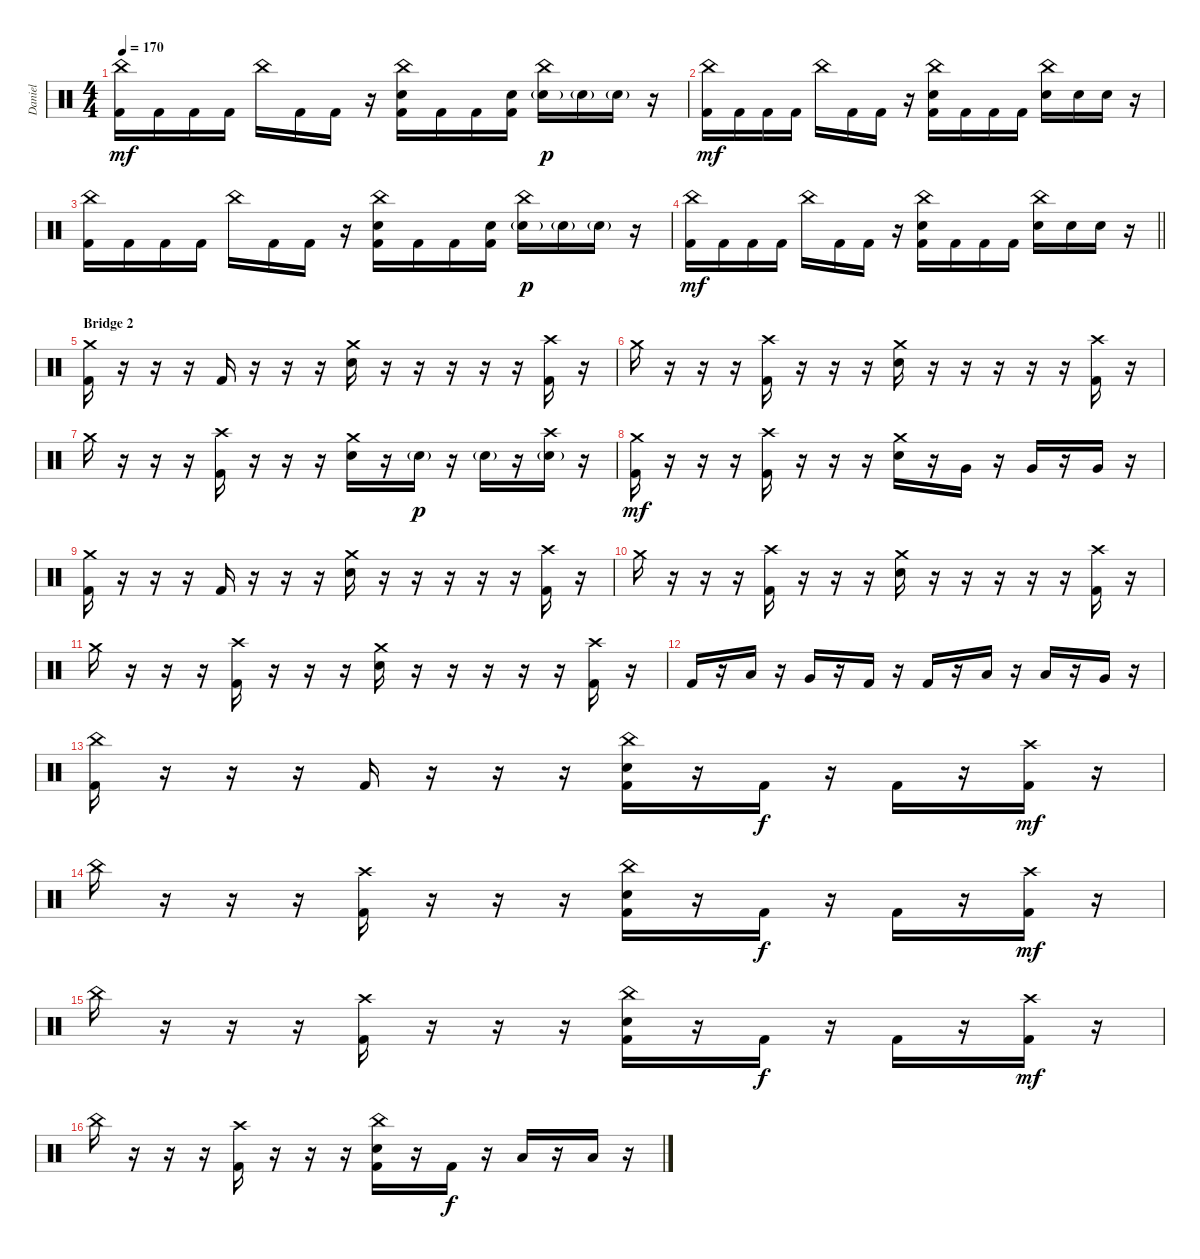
\track ("Daniel" "Daniel") {instrument percussion}
\staff {score}
\articulation defaults
\ts (4 4)
\tempo 170
\clef neutral
\ks c
("China (hit)" "Kick (hit) 2").16{dy mf} "Kick (hit) 2".16 "Kick (hit) 2".16 "Kick (hit) 2".16 "China (hit)".16 "Kick (hit) 2".16 "Kick (hit) 2".16 r.16 ("China (hit)" "Snare (hit) 2" "Kick (hit) 2").16 "Kick (hit) 2".16 "Kick (hit) 2".16 ("Snare (hit) 2" "Kick (hit) 2").16 ("China (hit)" "Snare (hit) 2"{g}).16{dy p} "Snare (hit) 2"{g}.16 "Snare (hit) 2"{g}.16 r.16 |
("China (hit)" "Kick (hit) 2").16{dy mf} "Kick (hit) 2".16 "Kick (hit) 2".16 "Kick (hit) 2".16 "China (hit)".16 "Kick (hit) 2".16 "Kick (hit) 2".16 r.16 ("China (hit)" "Snare (hit) 2" "Kick (hit) 2").16 "Kick (hit) 2".16 "Kick (hit) 2".16 "Kick (hit) 2".16 ("China (hit)" "Snare (hit) 2").16 "Snare (hit) 2".16 "Snare (hit) 2".16 r.16 |
("China (hit)" "Kick (hit) 2").16 "Kick (hit) 2".16 "Kick (hit) 2".16 "Kick (hit) 2".16 "China (hit)".16 "Kick (hit) 2".16 "Kick (hit) 2".16 r.16 ("China (hit)" "Snare (hit) 2" "Kick (hit) 2").16 "Kick (hit) 2".16 "Kick (hit) 2".16 ("Snare (hit) 2" "Kick (hit) 2").16 ("China (hit)" "Snare (hit) 2"{g}).16{dy p} "Snare (hit) 2"{g}.16 "Snare (hit) 2"{g}.16 r.16 |
\barLineRight lightlight
("China (hit)" "Kick (hit) 2").16{dy mf} "Kick (hit) 2".16 "Kick (hit) 2".16 "Kick (hit) 2".16 "China (hit)".16 "Kick (hit) 2".16 "Kick (hit) 2".16 r.16 ("China (hit)" "Snare (hit) 2" "Kick (hit) 2").16 "Kick (hit) 2".16 "Kick (hit) 2".16 "Kick (hit) 2".16 ("China (hit)" "Snare (hit) 2").16 "Snare (hit) 2".16 "Snare (hit) 2".16 r.16 |
\section ("" "Bridge 2")
("Crash medium (hit)" "Kick (hit) 2").16 r.16 r.16 r.16 "Kick (hit) 2".16 r.16 r.16 r.16 ("Crash medium (hit)" "Snare (hit) 2").16 r.16 r.16 r.16 r.16 r.16 ("Crash high (hit)" "Kick (hit) 2").16 r.16 |
"Crash medium (hit)".16 r.16 r.16 r.16 ("Crash high (hit)" "Kick (hit) 2").16 r.16 r.16 r.16 ("Crash medium (hit)" "Snare (hit) 2").16 r.16 r.16 r.16 r.16 r.16 ("Crash high (hit)" "Kick (hit) 2").16 r.16 |
"Crash medium (hit)".16 r.16 r.16 r.16 ("Crash high (hit)" "Kick (hit) 2").16 r.16 r.16 r.16 ("Crash medium (hit)" "Snare (hit) 2").16 r.16 "Snare (hit) 2"{g}.16{dy p} r.16 "Snare (hit) 2"{g}.16 r.16 ("Crash high (hit)" "Snare (hit) 2"{g}).16 r.16 |
("Crash medium (hit)" "Kick (hit) 2").16{dy mf} r.16 r.16 r.16 ("Crash high (hit)" "Kick (hit) 2").16 r.16 r.16 r.16 ("Crash medium (hit)" "Snare (hit) 2").16 r.16 "Very Low Tom (hit)".16 r.16 "Very Low Tom (hit)".16 r.16 "Very Low Tom (hit)".16 r.16 |
("Crash medium (hit)" "Kick (hit) 2").16 r.16 r.16 r.16 "Kick (hit) 2".16 r.16 r.16 r.16 ("Crash medium (hit)" "Snare (hit) 2").16 r.16 r.16 r.16 r.16 r.16 ("Crash high (hit)" "Kick (hit) 2").16 r.16 |
"Crash medium (hit)".16 r.16 r.16 r.16 ("Crash high (hit)" "Kick (hit) 2").16 r.16 r.16 r.16 ("Crash medium (hit)" "Snare (hit) 2").16 r.16 r.16 r.16 r.16 r.16 ("Crash high (hit)" "Kick (hit) 2").16 r.16 |
"Crash medium (hit)".16 r.16 r.16 r.16 ("Crash high (hit)" "Kick (hit) 2").16 r.16 r.16 r.16 ("Crash medium (hit)" "Snare (hit) 2").16 r.16 r.16 r.16 r.16 r.16 ("Crash high (hit)" "Kick (hit) 2").16 r.16 |
"Kick (hit) 2".16 r.16 "Low Tom (hit)".16 r.16 "Very Low Tom (hit)".16 r.16 "Kick (hit) 2".16 r.16 "Kick (hit) 2".16 r.16 "Low Tom (hit)".16 r.16 "Low Tom (hit)".16 r.16 "Very Low Tom (hit)".16 r.16 |
("China (hit)" "Kick (hit) 2").16 r.16 r.16 r.16 "Kick (hit) 2".16 r.16 r.16 r.16 ("China (hit)" "Snare (hit) 2" "Kick (hit) 2").16 r.16 "Kick (hit) 2".16{dy f} r.16 "Kick (hit) 2".16 r.16 ("Crash high (hit)" "Kick (hit) 2").16{dy mf} r.16 |
"China (hit)".16 r.16 r.16 r.16 ("Crash high (hit)" "Kick (hit) 2").16 r.16 r.16 r.16 ("China (hit)" "Snare (hit) 2" "Kick (hit) 2").16 r.16 "Kick (hit) 2".16{dy f} r.16 "Kick (hit) 2".16 r.16 ("Crash high (hit)" "Kick (hit) 2").16{dy mf} r.16 |
"China (hit)".16 r.16 r.16 r.16 ("Crash high (hit)" "Kick (hit) 2").16 r.16 r.16 r.16 ("China (hit)" "Snare (hit) 2" "Kick (hit) 2").16 r.16 "Kick (hit) 2".16{dy f} r.16 "Kick (hit) 2".16 r.16 ("Crash high (hit)" "Kick (hit) 2").16{dy mf} r.16 |
"China (hit)".16 r.16 r.16 r.16 ("Crash high (hit)" "Kick (hit) 2").16 r.16 r.16 r.16 ("China (hit)" "Snare (hit) 2" "Kick (hit) 2").16 r.16 "Kick (hit) 2".16{dy f} r.16 "Low Tom (hit)".16 r.16 "Low Tom (hit)".16 r.16
